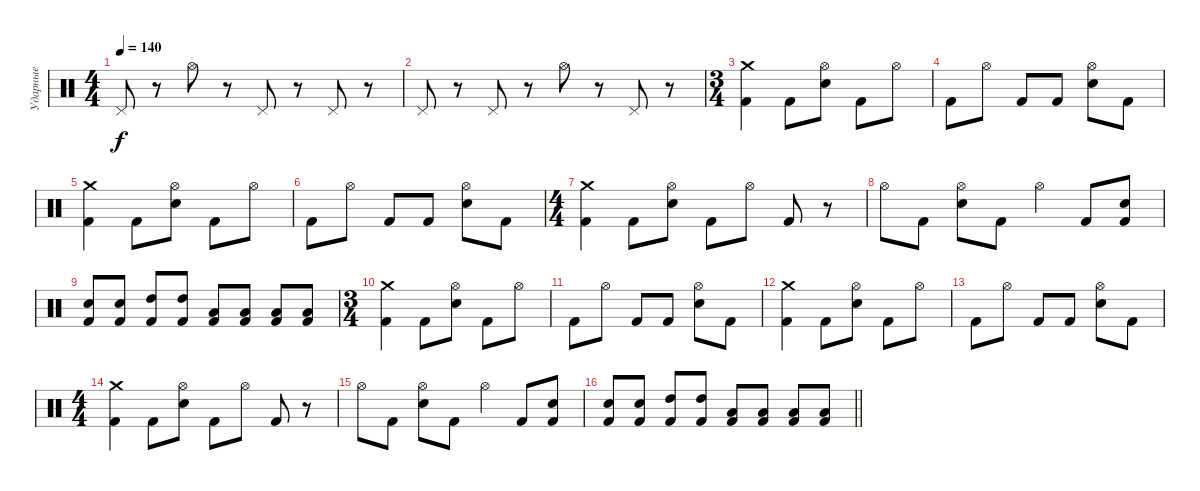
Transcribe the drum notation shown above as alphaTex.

\track ("Ударные" "Ударные") {instrument percussion}
\staff {score}
\articulation defaults
\ts (4 4)
\tempo 140
\clef neutral
\ks c "Pedal Hi-Hat (hit)".8{dy f}
r.8 "Hi-Hat (open)".8 r.8 "Pedal Hi-Hat (hit)".8 r.8 "Pedal Hi-Hat (hit)".8 r.8 |
"Pedal Hi-Hat (hit)".8 r.8 "Pedal Hi-Hat (hit)".8 r.8 "Hi-Hat (open)".8 r.8 "Pedal Hi-Hat (hit)".8 r.8 |
\ts (3 4)
("Crash medium (hit)" "Kick (hit) 2").4 "Kick (hit) 2".8 ("Hi-Hat (open)" "Electric Snare (hit)").8 "Kick (hit) 2".8 "Hi-Hat (open)".8 |
"Kick (hit) 2".8 "Hi-Hat (open)".8 "Kick (hit) 2".8 "Kick (hit) 2".8 ("Hi-Hat (open)" "Electric Snare (hit)").8 "Kick (hit) 2".8 |
("Crash medium (hit)" "Kick (hit) 2").4 "Kick (hit) 2".8 ("Hi-Hat (open)" "Electric Snare (hit)").8 "Kick (hit) 2".8 "Hi-Hat (open)".8 |
"Kick (hit) 2".8 "Hi-Hat (open)".8 "Kick (hit) 2".8 "Kick (hit) 2".8 ("Hi-Hat (open)" "Electric Snare (hit)").8 "Kick (hit) 2".8 |
\ts (4 4)
("Crash medium (hit)" "Kick (hit) 2").4 "Kick (hit) 2".8 ("Hi-Hat (open)" "Electric Snare (hit)").8 "Kick (hit) 2".8 "Hi-Hat (open)".8 "Kick (hit) 2".8 r.8 |
"Hi-Hat (open)".8 "Kick (hit) 2".8 ("Hi-Hat (open)" "Electric Snare (hit)").8 "Kick (hit) 2".8 "Hi-Hat (open)".4 "Kick (hit) 2".8 ("Electric Snare (hit)" "Kick (hit) 2").8 |
("Electric Snare (hit)" "Kick (hit) 2").8 ("Electric Snare (hit)" "Kick (hit) 2").8 ("High Tom (hit)" "Kick (hit) 2").8 ("High Tom (hit)" "Kick (hit) 2").8 ("Low Tom (hit)" "Kick (hit) 2").8 ("Low Tom (hit)" "Kick (hit) 2").8 ("Low Floor Tom (hit)" "Kick (hit) 2").8 ("Low Floor Tom (hit)" "Kick (hit) 2").8 |
\ts (3 4)
("Crash medium (hit)" "Kick (hit) 2").4 "Kick (hit) 2".8 ("Hi-Hat (open)" "Electric Snare (hit)").8 "Kick (hit) 2".8 "Hi-Hat (open)".8 |
"Kick (hit) 2".8 "Hi-Hat (open)".8 "Kick (hit) 2".8 "Kick (hit) 2".8 ("Hi-Hat (open)" "Electric Snare (hit)").8 "Kick (hit) 2".8 |
("Crash medium (hit)" "Kick (hit) 2").4 "Kick (hit) 2".8 ("Hi-Hat (open)" "Electric Snare (hit)").8 "Kick (hit) 2".8 "Hi-Hat (open)".8 |
"Kick (hit) 2".8 "Hi-Hat (open)".8 "Kick (hit) 2".8 "Kick (hit) 2".8 ("Hi-Hat (open)" "Electric Snare (hit)").8 "Kick (hit) 2".8 |
\ts (4 4)
("Crash medium (hit)" "Kick (hit) 2").4 "Kick (hit) 2".8 ("Hi-Hat (open)" "Electric Snare (hit)").8 "Kick (hit) 2".8 "Hi-Hat (open)".8 "Kick (hit) 2".8 r.8 |
"Hi-Hat (open)".8 "Kick (hit) 2".8 ("Hi-Hat (open)" "Electric Snare (hit)").8 "Kick (hit) 2".8 "Hi-Hat (open)".4 "Kick (hit) 2".8 ("Electric Snare (hit)" "Kick (hit) 2").8 |
\barLineRight lightlight
("Electric Snare (hit)" "Kick (hit) 2").8 ("Electric Snare (hit)" "Kick (hit) 2").8 ("High Tom (hit)" "Kick (hit) 2").8 ("High Tom (hit)" "Kick (hit) 2").8 ("Low Tom (hit)" "Kick (hit) 2").8 ("Low Tom (hit)" "Kick (hit) 2").8 ("Low Floor Tom (hit)" "Kick (hit) 2").8 ("Low Floor Tom (hit)" "Kick (hit) 2").8
